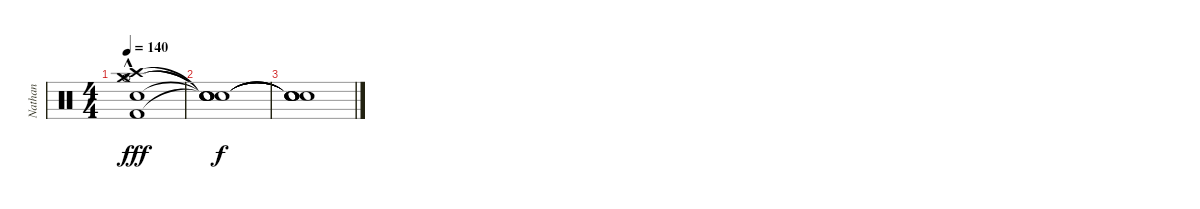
\track ("Nathan" "Nathan") {instrument percussion}
\staff {score}
\articulation defaults
\ts (4 4)
\tempo 140
\clef neutral
\ks c
("Crash medium (hit)"{hac} "Hi-Hat (open)"{hac} "Crash high (hit)"{hac} "Snare (hit) 2"{hac} "Kick (hit) 2"{hac}).1{dy fff} |
("Snare (hit)"{t} "Snare (hit)"{t} "Snare (hit)"{t} "Snare (hit)"{t} "Snare (hit)"{t}).1{dy f} |
("Snare (hit)"{t} "Snare (hit)"{t} "Snare (hit)"{t} "Snare (hit)"{t} "Snare (hit)"{t}).1
